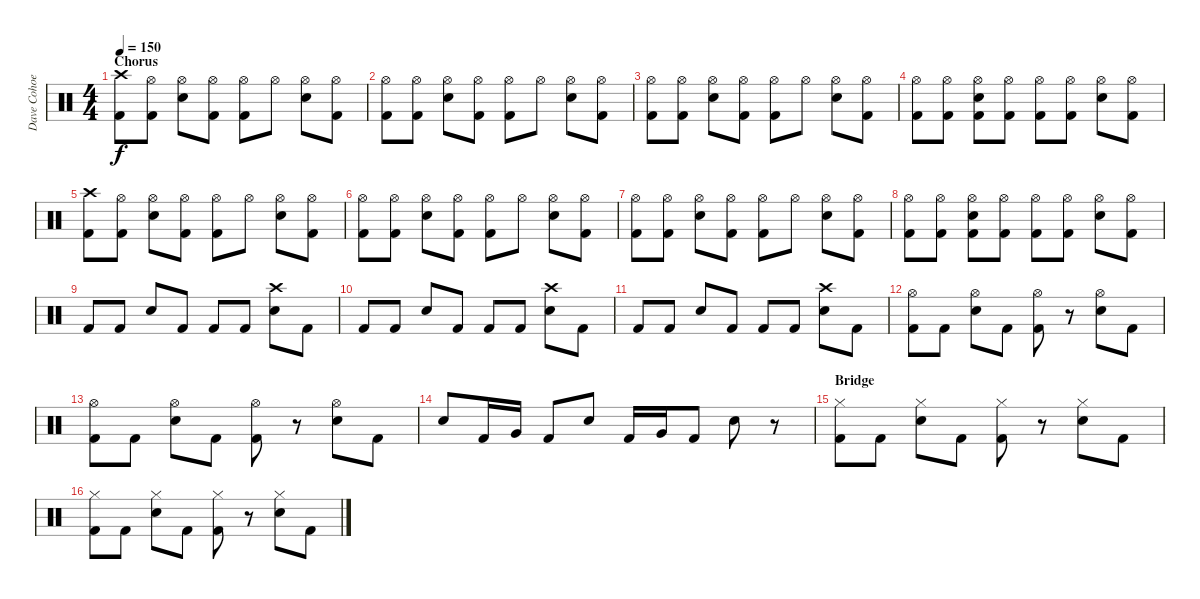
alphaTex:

\track ("Dave Cohoe" "Dave Cohoe") {instrument percussion}
\staff {score}
\articulation defaults
\ts (4 4)
\section ("" "Chorus")
\tempo 150
\clef neutral
\ks c
("Crash high (hit)" "Kick (hit) 2").8{dy f} ("Hi-Hat (open)" "Kick (hit) 2").8 ("Hi-Hat (open)" "Snare (hit) 2").8 ("Hi-Hat (open)" "Kick (hit) 2").8 ("Hi-Hat (open)" "Kick (hit) 2").8 "Hi-Hat (open)".8 ("Hi-Hat (open)" "Snare (hit) 2").8 ("Hi-Hat (open)" "Kick (hit) 2").8 |
("Hi-Hat (open)" "Kick (hit) 2").8 ("Hi-Hat (open)" "Kick (hit) 2").8 ("Hi-Hat (open)" "Snare (hit) 2").8 ("Hi-Hat (open)" "Kick (hit) 2").8 ("Hi-Hat (open)" "Kick (hit) 2").8 "Hi-Hat (open)".8 ("Hi-Hat (open)" "Snare (hit) 2").8 ("Hi-Hat (open)" "Kick (hit) 2").8 |
("Hi-Hat (open)" "Kick (hit) 2").8 ("Hi-Hat (open)" "Kick (hit) 2").8 ("Hi-Hat (open)" "Snare (hit) 2").8 ("Hi-Hat (open)" "Kick (hit) 2").8 ("Hi-Hat (open)" "Kick (hit) 2").8 "Hi-Hat (open)".8 ("Hi-Hat (open)" "Snare (hit) 2").8 ("Hi-Hat (open)" "Kick (hit) 2").8 |
("Hi-Hat (open)" "Kick (hit) 2").8 ("Hi-Hat (open)" "Kick (hit) 2").8 ("Hi-Hat (open)" "Snare (hit) 2" "Kick (hit) 2").8 ("Hi-Hat (open)" "Kick (hit) 2").8 ("Hi-Hat (open)" "Kick (hit) 2").8 ("Hi-Hat (open)" "Kick (hit) 2").8 ("Hi-Hat (open)" "Snare (hit) 2").8 ("Hi-Hat (open)" "Kick (hit) 2").8 |
("Crash high (hit)" "Kick (hit) 2").8 ("Hi-Hat (open)" "Kick (hit) 2").8 ("Hi-Hat (open)" "Snare (hit) 2").8 ("Hi-Hat (open)" "Kick (hit) 2").8 ("Hi-Hat (open)" "Kick (hit) 2").8 "Hi-Hat (open)".8 ("Hi-Hat (open)" "Snare (hit) 2").8 ("Hi-Hat (open)" "Kick (hit) 2").8 |
("Hi-Hat (open)" "Kick (hit) 2").8 ("Hi-Hat (open)" "Kick (hit) 2").8 ("Hi-Hat (open)" "Snare (hit) 2").8 ("Hi-Hat (open)" "Kick (hit) 2").8 ("Hi-Hat (open)" "Kick (hit) 2").8 "Hi-Hat (open)".8 ("Hi-Hat (open)" "Snare (hit) 2").8 ("Hi-Hat (open)" "Kick (hit) 2").8 |
("Hi-Hat (open)" "Kick (hit) 2").8 ("Hi-Hat (open)" "Kick (hit) 2").8 ("Hi-Hat (open)" "Snare (hit) 2").8 ("Hi-Hat (open)" "Kick (hit) 2").8 ("Hi-Hat (open)" "Kick (hit) 2").8 "Hi-Hat (open)".8 ("Hi-Hat (open)" "Snare (hit) 2").8 ("Hi-Hat (open)" "Kick (hit) 2").8 |
("Hi-Hat (open)" "Kick (hit) 2").8 ("Hi-Hat (open)" "Kick (hit) 2").8 ("Hi-Hat (open)" "Snare (hit) 2" "Kick (hit) 2").8 ("Hi-Hat (open)" "Kick (hit) 2").8 ("Hi-Hat (open)" "Kick (hit) 2").8 ("Hi-Hat (open)" "Kick (hit) 2").8 ("Hi-Hat (open)" "Snare (hit) 2").8 ("Hi-Hat (open)" "Kick (hit) 2").8 |
"Kick (hit) 2".8 "Kick (hit) 2".8 "Snare (hit) 2".8 "Kick (hit) 2".8 "Kick (hit) 2".8 "Kick (hit) 2".8 ("Crash high (hit)" "Snare (hit) 2").8 "Kick (hit) 2".8 |
"Kick (hit) 2".8 "Kick (hit) 2".8 "Snare (hit) 2".8 "Kick (hit) 2".8 "Kick (hit) 2".8 "Kick (hit) 2".8 ("Crash high (hit)" "Snare (hit) 2").8 "Kick (hit) 2".8 |
"Kick (hit) 2".8 "Kick (hit) 2".8 "Snare (hit) 2".8 "Kick (hit) 2".8 "Kick (hit) 2".8 "Kick (hit) 2".8 ("Crash high (hit)" "Snare (hit) 2").8 "Kick (hit) 2".8 |
("Hi-Hat (open)" "Kick (hit) 2").8 "Kick (hit) 2".8 ("Hi-Hat (open)" "Snare (hit) 2").8 "Kick (hit) 2".8 ("Hi-Hat (open)" "Kick (hit) 2").8 r.8 ("Hi-Hat (open)" "Snare (hit) 2").8 "Kick (hit) 2".8 |
("Hi-Hat (open)" "Kick (hit) 2").8 "Kick (hit) 2".8 ("Hi-Hat (open)" "Snare (hit) 2").8 "Kick (hit) 2".8 ("Hi-Hat (open)" "Kick (hit) 2").8 r.8 ("Hi-Hat (open)" "Snare (hit) 2").8 "Kick (hit) 2".8 |
"Snare (hit) 2".8 "Kick (hit) 2".16 "Very Low Tom (hit)".16 "Kick (hit) 2".8 "Snare (hit) 2".8 "Kick (hit) 2".16 "Very Low Tom (hit)".16 "Kick (hit) 2".8 "Snare (hit) 2".8 r.8 |
\section ("" "Bridge")
("Hi-Hat (closed)" "Kick (hit) 2").8 "Kick (hit) 2".8 ("Hi-Hat (closed)" "Snare (hit) 2").8 "Kick (hit) 2".8 ("Hi-Hat (closed)" "Kick (hit) 2").8 r.8 ("Hi-Hat (closed)" "Snare (hit) 2").8 "Kick (hit) 2".8 |
("Hi-Hat (closed)" "Kick (hit) 2").8 "Kick (hit) 2".8 ("Hi-Hat (closed)" "Snare (hit) 2").8 "Kick (hit) 2".8 ("Hi-Hat (closed)" "Kick (hit) 2").8 r.8 ("Hi-Hat (closed)" "Snare (hit) 2").8 "Kick (hit) 2".8
